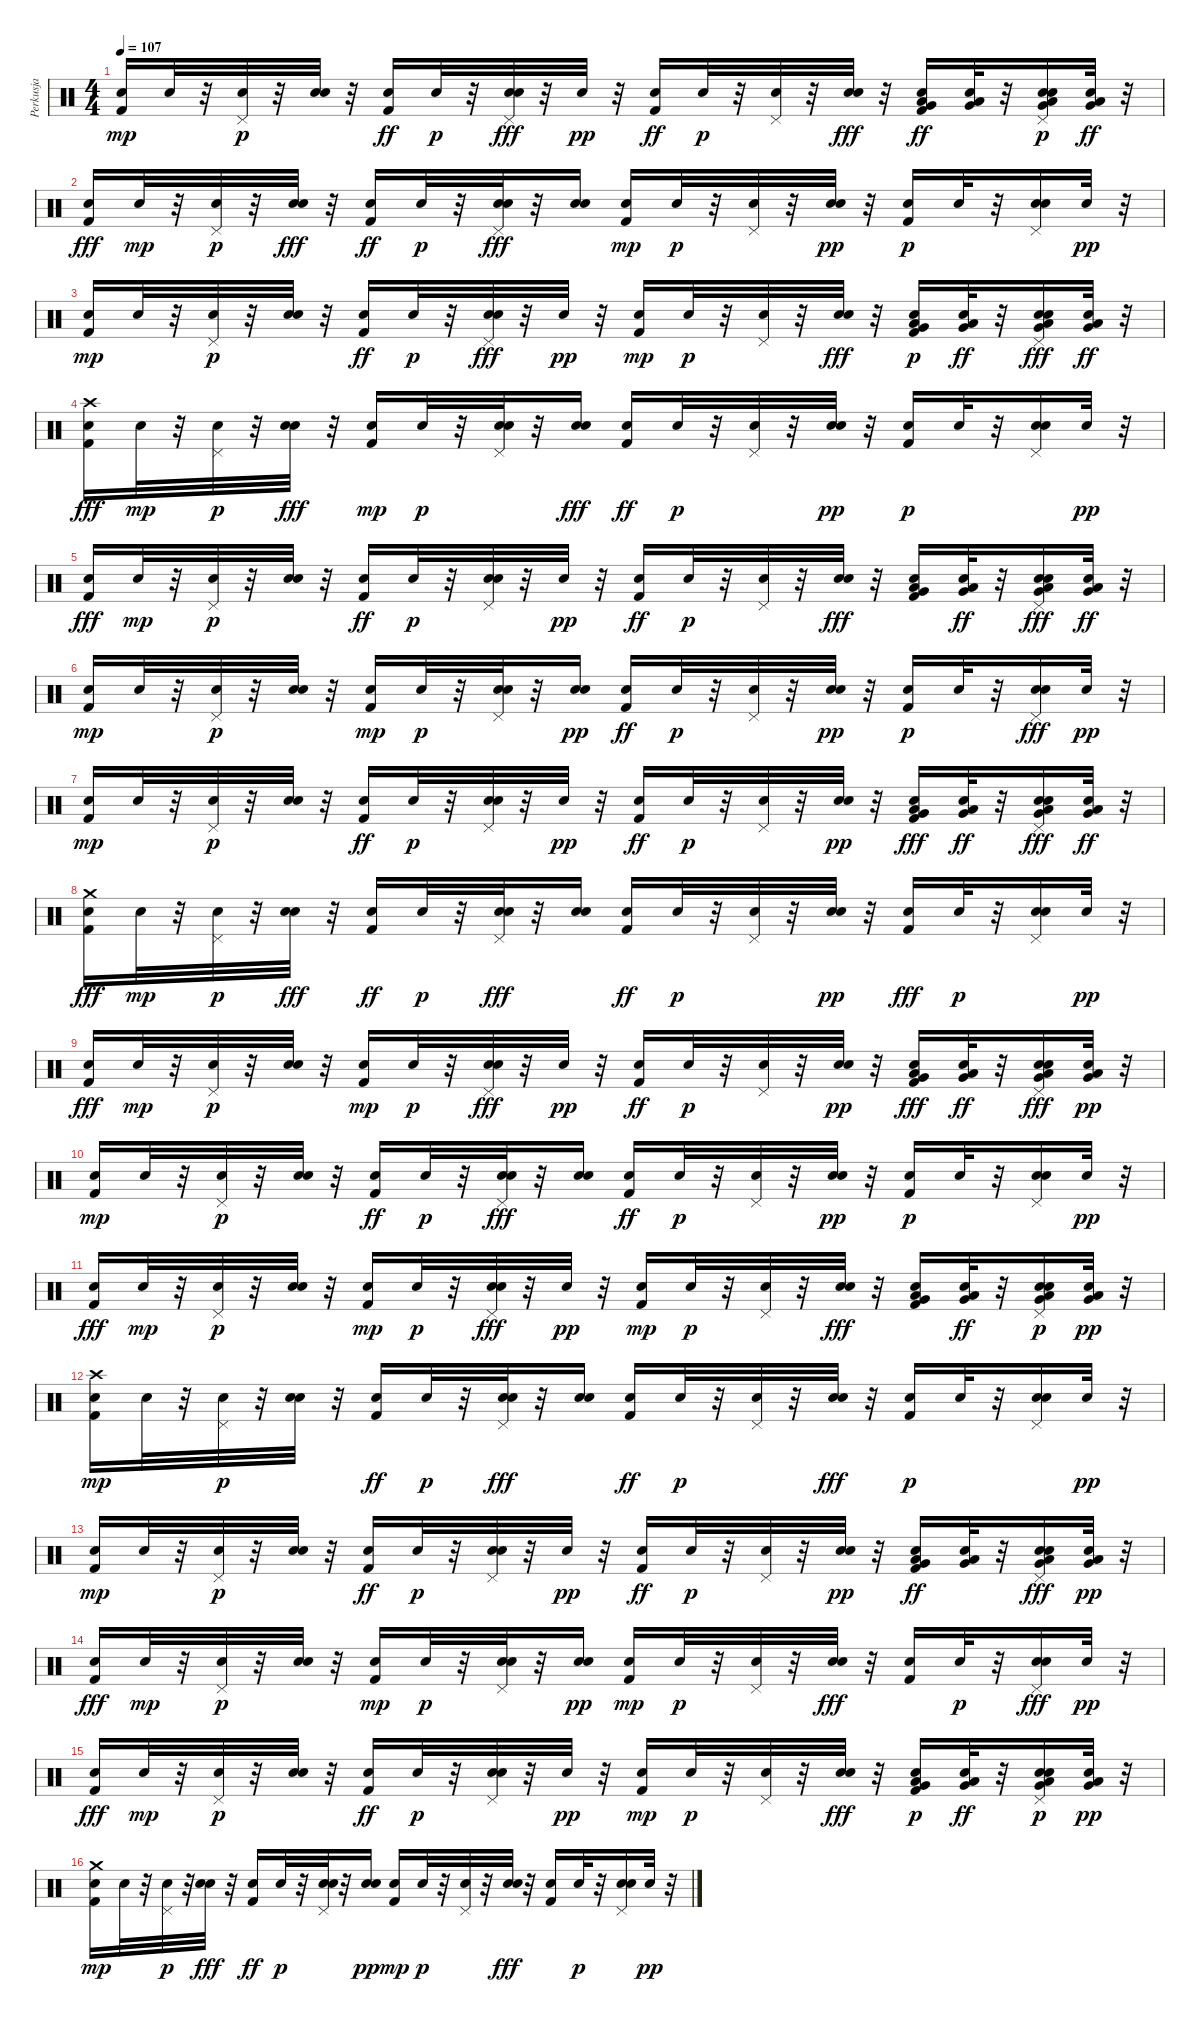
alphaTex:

\track ("Perkusja" "Perkusja") {instrument percussion}
\staff {score}
\articulation defaults
\ts (4 4)
\tempo 107
\clef neutral
\ks c
("Kick (hit) 2" "Snare (hit) 2").16{dy mp} "Snare (hit) 2".32 r.32 ("Pedal Hi-Hat (hit)" "Snare (hit) 2").32{dy p} r.32 ("Electric Snare (hit)" "Snare (hit) 2").32 r.32 ("Snare (hit) 2" "Kick (hit) 2").16{dy ff} "Snare (hit) 2".32{dy p} r.32 ("Pedal Hi-Hat (hit)" "Snare (hit) 2" "Electric Snare (hit)").32{dy fff} r.32 "Snare (hit) 2".32{dy pp} r.32 ("Snare (hit) 2" "Kick (hit) 2").16{dy ff} "Snare (hit) 2".32{dy p} r.32 ("Pedal Hi-Hat (hit)" "Snare (hit) 2").32 r.32 ("Snare (hit) 2" "Electric Snare (hit)").32{dy fff} r.32 ("Low Floor Tom (hit)" "Snare (hit) 2" "Kick (hit) 2" "Very Low Tom (hit)").16{dy ff} ("Snare (hit) 2" "Low Floor Tom (hit)" "Very Low Tom (hit)").32 r.32 ("Electric Snare (hit)" "Pedal Hi-Hat (hit)" "Very Low Tom (hit)" "Low Floor Tom (hit)" "Snare (hit) 2").16{dy p} ("Low Floor Tom (hit)" "Snare (hit) 2" "Very Low Tom (hit)").32{dy ff} r.32 |
("Snare (hit) 2" "Kick (hit) 2").16{dy fff} "Snare (hit) 2".32{dy mp} r.32 ("Snare (hit) 2" "Pedal Hi-Hat (hit)").32{dy p} r.32 ("Snare (hit) 2" "Electric Snare (hit)").32{dy fff} r.32 ("Snare (hit) 2" "Kick (hit) 2").16{dy ff} "Snare (hit) 2".32{dy p} r.32 ("Snare (hit) 2" "Electric Snare (hit)" "Pedal Hi-Hat (hit)").32{dy fff} r.32 ("Snare (hit) 2" "Electric Snare (hit)").16 ("Kick (hit) 2" "Snare (hit) 2").16{dy mp} "Snare (hit) 2".32{dy p} r.32 ("Pedal Hi-Hat (hit)" "Snare (hit) 2").32 r.32 ("Electric Snare (hit)" "Snare (hit) 2").32{dy pp} r.32 ("Kick (hit) 2" "Snare (hit) 2").16{dy p} "Snare (hit) 2".32 r.32 ("Electric Snare (hit)" "Snare (hit) 2" "Pedal Hi-Hat (hit)").16 "Snare (hit) 2".32{dy pp} r.32 |
("Kick (hit) 2" "Snare (hit) 2").16{dy mp} "Snare (hit) 2".32 r.32 ("Pedal Hi-Hat (hit)" "Snare (hit) 2").32{dy p} r.32 ("Electric Snare (hit)" "Snare (hit) 2").32 r.32 ("Snare (hit) 2" "Kick (hit) 2").16{dy ff} "Snare (hit) 2".32{dy p} r.32 ("Pedal Hi-Hat (hit)" "Snare (hit) 2" "Electric Snare (hit)").32{dy fff} r.32 "Snare (hit) 2".32{dy pp} r.32 ("Kick (hit) 2" "Snare (hit) 2").16{dy mp} "Snare (hit) 2".32{dy p} r.32 ("Snare (hit) 2" "Pedal Hi-Hat (hit)").32 r.32 ("Snare (hit) 2" "Electric Snare (hit)").32{dy fff} r.32 ("Very Low Tom (hit)" "Kick (hit) 2" "Low Floor Tom (hit)" "Snare (hit) 2").16{dy p} ("Snare (hit) 2" "Low Floor Tom (hit)" "Very Low Tom (hit)").32{dy ff} r.32 ("Very Low Tom (hit)" "Snare (hit) 2" "Electric Snare (hit)" "Low Floor Tom (hit)" "Pedal Hi-Hat (hit)").16{dy fff} ("Very Low Tom (hit)" "Snare (hit) 2" "Low Floor Tom (hit)").32{dy ff} r.32 |
("Kick (hit) 2" "Snare (hit) 2" "Crash high (hit)").16{dy fff} "Snare (hit) 2".32{dy mp} r.32 ("Snare (hit) 2" "Pedal Hi-Hat (hit)").32{dy p} r.32 ("Snare (hit) 2" "Electric Snare (hit)").32{dy fff} r.32 ("Kick (hit) 2" "Snare (hit) 2").16{dy mp} "Snare (hit) 2".32{dy p} r.32 ("Electric Snare (hit)" "Pedal Hi-Hat (hit)" "Snare (hit) 2").32 r.32 ("Snare (hit) 2" "Electric Snare (hit)").16{dy fff} ("Snare (hit) 2" "Kick (hit) 2").16{dy ff} "Snare (hit) 2".32{dy p} r.32 ("Snare (hit) 2" "Pedal Hi-Hat (hit)").32 r.32 ("Electric Snare (hit)" "Snare (hit) 2").32{dy pp} r.32 ("Kick (hit) 2" "Snare (hit) 2").16{dy p} "Snare (hit) 2".32 r.32 ("Electric Snare (hit)" "Snare (hit) 2" "Pedal Hi-Hat (hit)").16 "Snare (hit) 2".32{dy pp} r.32 |
("Snare (hit) 2" "Kick (hit) 2").16{dy fff} "Snare (hit) 2".32{dy mp} r.32 ("Pedal Hi-Hat (hit)" "Snare (hit) 2").32{dy p} r.32 ("Electric Snare (hit)" "Snare (hit) 2").32 r.32 ("Snare (hit) 2" "Kick (hit) 2").16{dy ff} "Snare (hit) 2".32{dy p} r.32 ("Electric Snare (hit)" "Snare (hit) 2" "Pedal Hi-Hat (hit)").32 r.32 "Snare (hit) 2".32{dy pp} r.32 ("Snare (hit) 2" "Kick (hit) 2").16{dy ff} "Snare (hit) 2".32{dy p} r.32 ("Pedal Hi-Hat (hit)" "Snare (hit) 2").32 r.32 ("Snare (hit) 2" "Electric Snare (hit)").32{dy fff} r.32 ("Kick (hit) 2" "Snare (hit) 2" "Very Low Tom (hit)" "Low Floor Tom (hit)").16 ("Very Low Tom (hit)" "Snare (hit) 2" "Low Floor Tom (hit)").32{dy ff} r.32 ("Very Low Tom (hit)" "Snare (hit) 2" "Low Floor Tom (hit)" "Electric Snare (hit)" "Pedal Hi-Hat (hit)").16{dy fff} ("Snare (hit) 2" "Low Floor Tom (hit)" "Very Low Tom (hit)").32{dy ff} r.32 |
("Kick (hit) 2" "Snare (hit) 2").16{dy mp} "Snare (hit) 2".32 r.32 ("Pedal Hi-Hat (hit)" "Snare (hit) 2").32{dy p} r.32 ("Electric Snare (hit)" "Snare (hit) 2").32 r.32 ("Kick (hit) 2" "Snare (hit) 2").16{dy mp} "Snare (hit) 2".32{dy p} r.32 ("Electric Snare (hit)" "Pedal Hi-Hat (hit)" "Snare (hit) 2").32 r.32 ("Electric Snare (hit)" "Snare (hit) 2").16{dy pp} ("Snare (hit) 2" "Kick (hit) 2").16{dy ff} "Snare (hit) 2".32{dy p} r.32 ("Snare (hit) 2" "Pedal Hi-Hat (hit)").32 r.32 ("Electric Snare (hit)" "Snare (hit) 2").32{dy pp} r.32 ("Kick (hit) 2" "Snare (hit) 2").16{dy p} "Snare (hit) 2".32 r.32 ("Pedal Hi-Hat (hit)" "Snare (hit) 2" "Electric Snare (hit)").16{dy fff} "Snare (hit) 2".32{dy pp} r.32 |
("Kick (hit) 2" "Snare (hit) 2").16{dy mp} "Snare (hit) 2".32 r.32 ("Pedal Hi-Hat (hit)" "Snare (hit) 2").32{dy p} r.32 ("Electric Snare (hit)" "Snare (hit) 2").32 r.32 ("Snare (hit) 2" "Kick (hit) 2").16{dy ff} "Snare (hit) 2".32{dy p} r.32 ("Pedal Hi-Hat (hit)" "Electric Snare (hit)" "Snare (hit) 2").32 r.32 "Snare (hit) 2".32{dy pp} r.32 ("Snare (hit) 2" "Kick (hit) 2").16{dy ff} "Snare (hit) 2".32{dy p} r.32 ("Pedal Hi-Hat (hit)" "Snare (hit) 2").32 r.32 ("Electric Snare (hit)" "Snare (hit) 2").32{dy pp} r.32 ("Snare (hit) 2" "Kick (hit) 2" "Very Low Tom (hit)" "Low Floor Tom (hit)").16{dy fff} ("Snare (hit) 2" "Very Low Tom (hit)" "Low Floor Tom (hit)").32{dy ff} r.32 ("Snare (hit) 2" "Low Floor Tom (hit)" "Very Low Tom (hit)" "Pedal Hi-Hat (hit)" "Electric Snare (hit)").16{dy fff} ("Snare (hit) 2" "Low Floor Tom (hit)" "Very Low Tom (hit)").32{dy ff} r.32 |
("Kick (hit) 2" "Snare (hit) 2" "Crash medium (hit)").16{dy fff} "Snare (hit) 2".32{dy mp} r.32 ("Snare (hit) 2" "Pedal Hi-Hat (hit)").32{dy p} r.32 ("Snare (hit) 2" "Electric Snare (hit)").32{dy fff} r.32 ("Snare (hit) 2" "Kick (hit) 2").16{dy ff} "Snare (hit) 2".32{dy p} r.32 ("Pedal Hi-Hat (hit)" "Snare (hit) 2" "Electric Snare (hit)").32{dy fff} r.32 ("Snare (hit) 2" "Electric Snare (hit)").16 ("Snare (hit) 2" "Kick (hit) 2").16{dy ff} "Snare (hit) 2".32{dy p} r.32 ("Snare (hit) 2" "Pedal Hi-Hat (hit)").32 r.32 ("Electric Snare (hit)" "Snare (hit) 2").32{dy pp} r.32 ("Snare (hit) 2" "Kick (hit) 2").16{dy fff} "Snare (hit) 2".32{dy p} r.32 ("Electric Snare (hit)" "Snare (hit) 2" "Pedal Hi-Hat (hit)").16 "Snare (hit) 2".32{dy pp} r.32 |
("Snare (hit) 2" "Kick (hit) 2").16{dy fff} "Snare (hit) 2".32{dy mp} r.32 ("Pedal Hi-Hat (hit)" "Snare (hit) 2").32{dy p} r.32 ("Electric Snare (hit)" "Snare (hit) 2").32 r.32 ("Kick (hit) 2" "Snare (hit) 2").16{dy mp} "Snare (hit) 2".32{dy p} r.32 ("Snare (hit) 2" "Pedal Hi-Hat (hit)" "Electric Snare (hit)").32{dy fff} r.32 "Snare (hit) 2".32{dy pp} r.32 ("Snare (hit) 2" "Kick (hit) 2").16{dy ff} "Snare (hit) 2".32{dy p} r.32 ("Snare (hit) 2" "Pedal Hi-Hat (hit)").32 r.32 ("Electric Snare (hit)" "Snare (hit) 2").32{dy pp} r.32 ("Snare (hit) 2" "Low Floor Tom (hit)" "Very Low Tom (hit)" "Kick (hit) 2").16{dy fff} ("Snare (hit) 2" "Very Low Tom (hit)" "Low Floor Tom (hit)").32{dy ff} r.32 ("Snare (hit) 2" "Very Low Tom (hit)" "Pedal Hi-Hat (hit)" "Electric Snare (hit)" "Low Floor Tom (hit)").16{dy fff} ("Very Low Tom (hit)" "Low Floor Tom (hit)" "Snare (hit) 2").32{dy pp} r.32 |
("Kick (hit) 2" "Snare (hit) 2").16{dy mp} "Snare (hit) 2".32 r.32 ("Pedal Hi-Hat (hit)" "Snare (hit) 2").32{dy p} r.32 ("Electric Snare (hit)" "Snare (hit) 2").32 r.32 ("Snare (hit) 2" "Kick (hit) 2").16{dy ff} "Snare (hit) 2".32{dy p} r.32 ("Pedal Hi-Hat (hit)" "Snare (hit) 2" "Electric Snare (hit)").32{dy fff} r.32 ("Snare (hit) 2" "Electric Snare (hit)").16 ("Snare (hit) 2" "Kick (hit) 2").16{dy ff} "Snare (hit) 2".32{dy p} r.32 ("Pedal Hi-Hat (hit)" "Snare (hit) 2").32 r.32 ("Electric Snare (hit)" "Snare (hit) 2").32{dy pp} r.32 ("Kick (hit) 2" "Snare (hit) 2").16{dy p} "Snare (hit) 2".32 r.32 ("Pedal Hi-Hat (hit)" "Electric Snare (hit)" "Snare (hit) 2").16 "Snare (hit) 2".32{dy pp} r.32 |
("Snare (hit) 2" "Kick (hit) 2").16{dy fff} "Snare (hit) 2".32{dy mp} r.32 ("Pedal Hi-Hat (hit)" "Snare (hit) 2").32{dy p} r.32 ("Electric Snare (hit)" "Snare (hit) 2").32 r.32 ("Kick (hit) 2" "Snare (hit) 2").16{dy mp} "Snare (hit) 2".32{dy p} r.32 ("Pedal Hi-Hat (hit)" "Snare (hit) 2" "Electric Snare (hit)").32{dy fff} r.32 "Snare (hit) 2".32{dy pp} r.32 ("Kick (hit) 2" "Snare (hit) 2").16{dy mp} "Snare (hit) 2".32{dy p} r.32 ("Pedal Hi-Hat (hit)" "Snare (hit) 2").32 r.32 ("Snare (hit) 2" "Electric Snare (hit)").32{dy fff} r.32 ("Snare (hit) 2" "Very Low Tom (hit)" "Low Floor Tom (hit)" "Kick (hit) 2").16 ("Very Low Tom (hit)" "Snare (hit) 2" "Low Floor Tom (hit)").32{dy ff} r.32 ("Very Low Tom (hit)" "Low Floor Tom (hit)" "Electric Snare (hit)" "Pedal Hi-Hat (hit)" "Snare (hit) 2").16{dy p} ("Low Floor Tom (hit)" "Very Low Tom (hit)" "Snare (hit) 2").32{dy pp} r.32 |
("Crash high (hit)" "Kick (hit) 2" "Snare (hit) 2").16{dy mp} "Snare (hit) 2".32 r.32 ("Snare (hit) 2" "Pedal Hi-Hat (hit)").32{dy p} r.32 ("Electric Snare (hit)" "Snare (hit) 2").32 r.32 ("Snare (hit) 2" "Kick (hit) 2").16{dy ff} "Snare (hit) 2".32{dy p} r.32 ("Snare (hit) 2" "Pedal Hi-Hat (hit)" "Electric Snare (hit)").32{dy fff} r.32 ("Snare (hit) 2" "Electric Snare (hit)").16 ("Snare (hit) 2" "Kick (hit) 2").16{dy ff} "Snare (hit) 2".32{dy p} r.32 ("Pedal Hi-Hat (hit)" "Snare (hit) 2").32 r.32 ("Snare (hit) 2" "Electric Snare (hit)").32{dy fff} r.32 ("Kick (hit) 2" "Snare (hit) 2").16{dy p} "Snare (hit) 2".32 r.32 ("Electric Snare (hit)" "Pedal Hi-Hat (hit)" "Snare (hit) 2").16 "Snare (hit) 2".32{dy pp} r.32 |
("Kick (hit) 2" "Snare (hit) 2").16{dy mp} "Snare (hit) 2".32 r.32 ("Snare (hit) 2" "Pedal Hi-Hat (hit)").32{dy p} r.32 ("Electric Snare (hit)" "Snare (hit) 2").32 r.32 ("Snare (hit) 2" "Kick (hit) 2").16{dy ff} "Snare (hit) 2".32{dy p} r.32 ("Electric Snare (hit)" "Snare (hit) 2" "Pedal Hi-Hat (hit)").32 r.32 "Snare (hit) 2".32{dy pp} r.32 ("Snare (hit) 2" "Kick (hit) 2").16{dy ff} "Snare (hit) 2".32{dy p} r.32 ("Snare (hit) 2" "Pedal Hi-Hat (hit)").32 r.32 ("Electric Snare (hit)" "Snare (hit) 2").32{dy pp} r.32 ("Kick (hit) 2" "Low Floor Tom (hit)" "Snare (hit) 2" "Very Low Tom (hit)").16{dy ff} ("Snare (hit) 2" "Very Low Tom (hit)" "Low Floor Tom (hit)").32 r.32 ("Snare (hit) 2" "Very Low Tom (hit)" "Pedal Hi-Hat (hit)" "Electric Snare (hit)" "Low Floor Tom (hit)").16{dy fff} ("Low Floor Tom (hit)" "Very Low Tom (hit)" "Snare (hit) 2").32{dy pp} r.32 |
("Snare (hit) 2" "Kick (hit) 2").16{dy fff} "Snare (hit) 2".32{dy mp} r.32 ("Snare (hit) 2" "Pedal Hi-Hat (hit)").32{dy p} r.32 ("Electric Snare (hit)" "Snare (hit) 2").32 r.32 ("Kick (hit) 2" "Snare (hit) 2").16{dy mp} "Snare (hit) 2".32{dy p} r.32 ("Electric Snare (hit)" "Pedal Hi-Hat (hit)" "Snare (hit) 2").32 r.32 ("Electric Snare (hit)" "Snare (hit) 2").16{dy pp} ("Kick (hit) 2" "Snare (hit) 2").16{dy mp} "Snare (hit) 2".32{dy p} r.32 ("Snare (hit) 2" "Pedal Hi-Hat (hit)").32 r.32 ("Snare (hit) 2" "Electric Snare (hit)").32{dy fff} r.32 ("Snare (hit) 2" "Kick (hit) 2").16 "Snare (hit) 2".32{dy p} r.32 ("Snare (hit) 2" "Pedal Hi-Hat (hit)" "Electric Snare (hit)").16{dy fff} "Snare (hit) 2".32{dy pp} r.32 |
("Snare (hit) 2" "Kick (hit) 2").16{dy fff} "Snare (hit) 2".32{dy mp} r.32 ("Snare (hit) 2" "Pedal Hi-Hat (hit)").32{dy p} r.32 ("Electric Snare (hit)" "Snare (hit) 2").32 r.32 ("Snare (hit) 2" "Kick (hit) 2").16{dy ff} "Snare (hit) 2".32{dy p} r.32 ("Pedal Hi-Hat (hit)" "Electric Snare (hit)" "Snare (hit) 2").32 r.32 "Snare (hit) 2".32{dy pp} r.32 ("Kick (hit) 2" "Snare (hit) 2").16{dy mp} "Snare (hit) 2".32{dy p} r.32 ("Pedal Hi-Hat (hit)" "Snare (hit) 2").32 r.32 ("Snare (hit) 2" "Electric Snare (hit)").32{dy fff} r.32 ("Very Low Tom (hit)" "Low Floor Tom (hit)" "Kick (hit) 2" "Snare (hit) 2").16{dy p} ("Very Low Tom (hit)" "Snare (hit) 2" "Low Floor Tom (hit)").32{dy ff} r.32 ("Very Low Tom (hit)" "Low Floor Tom (hit)" "Electric Snare (hit)" "Pedal Hi-Hat (hit)" "Snare (hit) 2").16{dy p} ("Very Low Tom (hit)" "Low Floor Tom (hit)" "Snare (hit) 2").32{dy pp} r.32 |
("Kick (hit) 2" "Crash medium (hit)" "Snare (hit) 2").16{dy mp} "Snare (hit) 2".32 r.32 ("Snare (hit) 2" "Pedal Hi-Hat (hit)").32{dy p} r.32 ("Snare (hit) 2" "Electric Snare (hit)").32{dy fff} r.32 ("Snare (hit) 2" "Kick (hit) 2").16{dy ff} "Snare (hit) 2".32{dy p} r.32 ("Electric Snare (hit)" "Pedal Hi-Hat (hit)" "Snare (hit) 2").32 r.32 ("Electric Snare (hit)" "Snare (hit) 2").16{dy pp} ("Kick (hit) 2" "Snare (hit) 2").16{dy mp} "Snare (hit) 2".32{dy p} r.32 ("Pedal Hi-Hat (hit)" "Snare (hit) 2").32 r.32 ("Snare (hit) 2" "Electric Snare (hit)").32{dy fff} r.32 ("Snare (hit) 2" "Kick (hit) 2").16 "Snare (hit) 2".32{dy p} r.32 ("Pedal Hi-Hat (hit)" "Electric Snare (hit)" "Snare (hit) 2").16 "Snare (hit) 2".32{dy pp} r.32
